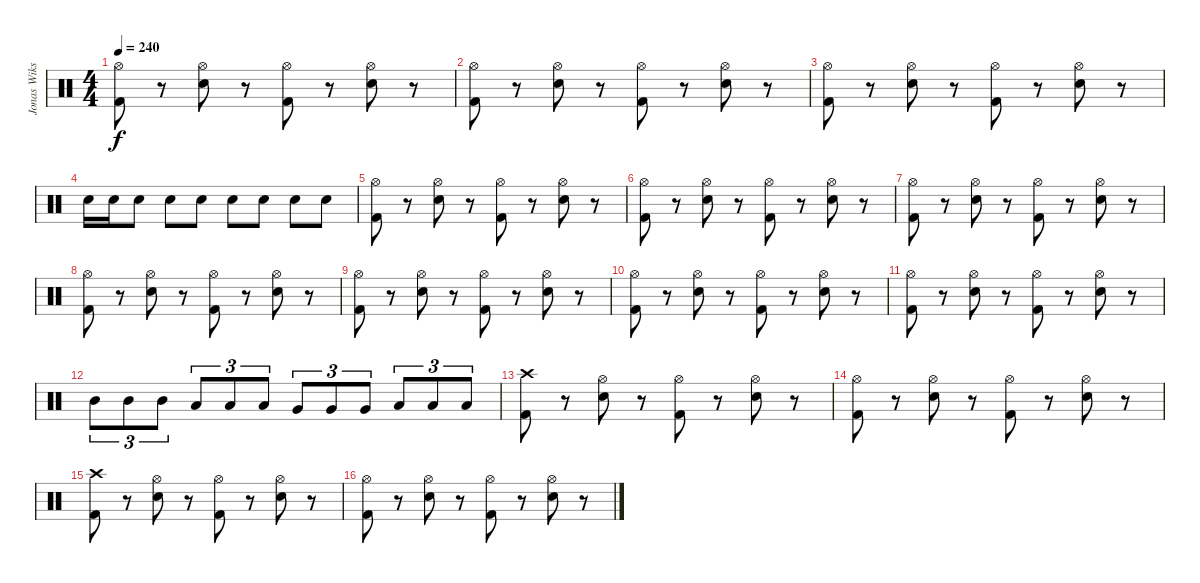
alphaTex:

\track ("Jonas Wikstrand" "Jonas Wiks") {instrument percussion}
\staff {score}
\articulation defaults
\ts (4 4)
\tempo 240
\clef neutral
\ks c
("Hi-Hat (open)" "Kick (hit) 2").8{dy f} r.8 ("Hi-Hat (open)" "Snare (hit) 2").8 r.8 ("Hi-Hat (open)" "Kick (hit) 2").8 r.8 ("Hi-Hat (open)" "Snare (hit) 2").8 r.8 |
("Hi-Hat (open)" "Kick (hit) 2").8 r.8 ("Hi-Hat (open)" "Snare (hit) 2").8 r.8 ("Hi-Hat (open)" "Kick (hit) 2").8 r.8 ("Hi-Hat (open)" "Snare (hit) 2").8 r.8 |
("Hi-Hat (open)" "Kick (hit) 2").8 r.8 ("Hi-Hat (open)" "Snare (hit) 2").8 r.8 ("Hi-Hat (open)" "Kick (hit) 2").8 r.8 ("Hi-Hat (open)" "Snare (hit) 2").8 r.8 |
"Snare (hit) 2".16 "Snare (hit) 2".16 "Snare (hit) 2".8 "Snare (hit) 2".8 "Snare (hit) 2".8 "Snare (hit) 2".8 "Snare (hit) 2".8 "Snare (hit) 2".8 "Snare (hit) 2".8 |
("Hi-Hat (open)" "Kick (hit) 2").8 r.8 ("Hi-Hat (open)" "Snare (hit) 2").8 r.8 ("Hi-Hat (open)" "Kick (hit) 2").8 r.8 ("Hi-Hat (open)" "Snare (hit) 2").8 r.8 |
("Hi-Hat (open)" "Kick (hit) 2").8 r.8 ("Hi-Hat (open)" "Snare (hit) 2").8 r.8 ("Hi-Hat (open)" "Kick (hit) 2").8 r.8 ("Hi-Hat (open)" "Snare (hit) 2").8 r.8 |
("Hi-Hat (open)" "Kick (hit) 2").8 r.8 ("Hi-Hat (open)" "Snare (hit) 2").8 r.8 ("Hi-Hat (open)" "Kick (hit) 2").8 r.8 ("Hi-Hat (open)" "Snare (hit) 2").8 r.8 |
("Hi-Hat (open)" "Kick (hit) 2").8 r.8 ("Hi-Hat (open)" "Snare (hit) 2").8 r.8 ("Hi-Hat (open)" "Kick (hit) 2").8 r.8 ("Hi-Hat (open)" "Snare (hit) 2").8 r.8 |
("Hi-Hat (open)" "Kick (hit) 2").8 r.8 ("Hi-Hat (open)" "Snare (hit) 2").8 r.8 ("Hi-Hat (open)" "Kick (hit) 2").8 r.8 ("Hi-Hat (open)" "Snare (hit) 2").8 r.8 |
("Hi-Hat (open)" "Kick (hit) 2").8 r.8 ("Hi-Hat (open)" "Snare (hit) 2").8 r.8 ("Hi-Hat (open)" "Kick (hit) 2").8 r.8 ("Hi-Hat (open)" "Snare (hit) 2").8 r.8 |
("Hi-Hat (open)" "Kick (hit) 2").8 r.8 ("Hi-Hat (open)" "Snare (hit) 2").8 r.8 ("Hi-Hat (open)" "Kick (hit) 2").8 r.8 ("Hi-Hat (open)" "Snare (hit) 2").8 r.8 |
"Mid Tom (hit)".8{tu (3 2)} "Mid Tom (hit)".8{tu (3 2)} "Mid Tom (hit)".8{tu (3 2)} "Low Tom (hit)".8{tu (3 2)} "Low Tom (hit)".8{tu (3 2)} "Low Tom (hit)".8{tu (3 2)} "Very Low Tom (hit)".8{tu (3 2)} "Very Low Tom (hit)".8{tu (3 2)} "Very Low Tom (hit)".8{tu (3 2)} "Low Floor Tom (hit)".8{tu (3 2)} "Low Floor Tom (hit)".8{tu (3 2)} "Low Floor Tom (hit)".8{tu (3 2)} |
("Crash high (hit)" "Kick (hit) 2").8 r.8 ("Hi-Hat (open)" "Snare (hit) 2").8 r.8 ("Hi-Hat (open)" "Kick (hit) 2").8 r.8 ("Hi-Hat (open)" "Snare (hit) 2").8 r.8 |
("Hi-Hat (open)" "Kick (hit) 2").8 r.8 ("Hi-Hat (open)" "Snare (hit) 2").8 r.8 ("Hi-Hat (open)" "Kick (hit) 2").8 r.8 ("Hi-Hat (open)" "Snare (hit) 2").8 r.8 |
("Crash high (hit)" "Kick (hit) 2").8 r.8 ("Hi-Hat (open)" "Snare (hit) 2").8 r.8 ("Hi-Hat (open)" "Kick (hit) 2").8 r.8 ("Hi-Hat (open)" "Snare (hit) 2").8 r.8 |
("Hi-Hat (open)" "Kick (hit) 2").8 r.8 ("Hi-Hat (open)" "Snare (hit) 2").8 r.8 ("Hi-Hat (open)" "Kick (hit) 2").8 r.8 ("Hi-Hat (open)" "Snare (hit) 2").8 r.8
